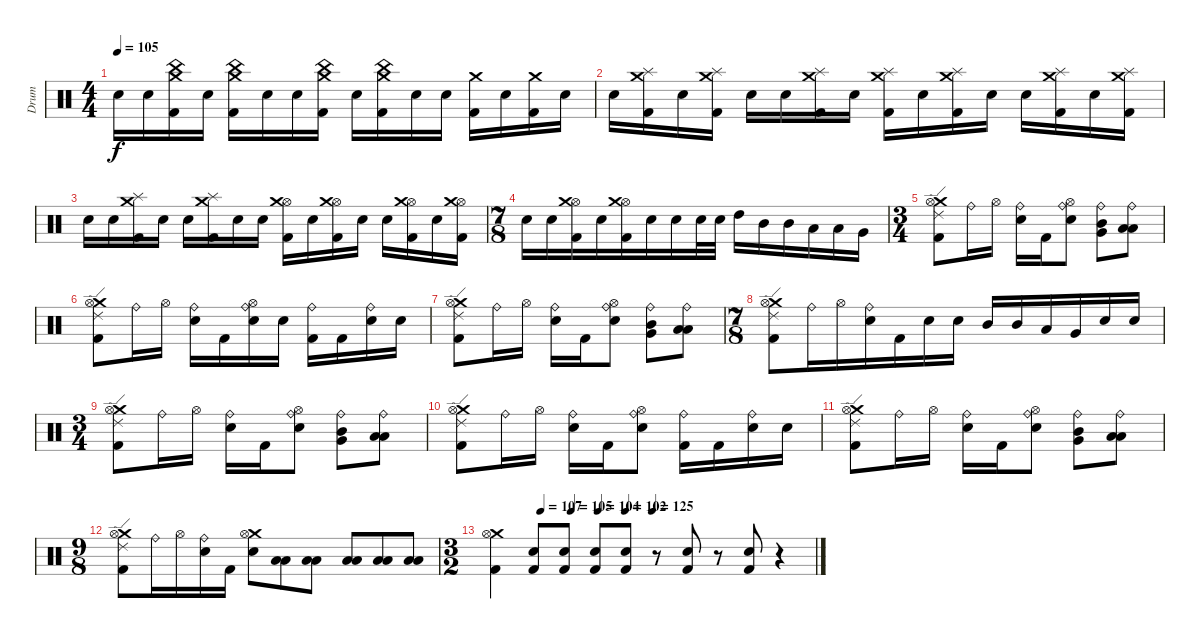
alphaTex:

\track ("Drum" "Drum") {instrument percussion}
\staff {score}
\articulation defaults
\ts (4 4)
\tempo 105
\clef neutral
\ks c "Electric Snare (hit)".16{dy f} "Electric Snare (hit)".16
("Crash medium (hit)" "China (hit)" "Kick (hit) 2").16 "Electric Snare (hit)".16 ("Crash medium (hit)" "China (hit)" "Kick (hit) 2").16 "Electric Snare (hit)".16 "Electric Snare (hit)".16 ("Crash medium (hit)" "China (hit)" "Kick (hit) 2").16 "Electric Snare (hit)".16 ("Crash medium (hit)" "China (hit)" "Kick (hit) 2").16 "Electric Snare (hit)".16 "Electric Snare (hit)".16 ("Crash medium (hit)" "Kick (hit) 2").16 "Electric Snare (hit)".16 ("Crash medium (hit)" "Kick (hit) 2").16 "Electric Snare (hit)".16 |
"Electric Snare (hit)".16 ("Kick (hit) 2" "Crash medium (hit)" "Splash (hit)").16 "Electric Snare (hit)".16 ("Kick (hit) 2" "Crash medium (hit)" "Splash (hit)").16 "Electric Snare (hit)".16 "Electric Snare (hit)".16 ("Splash (hit)" "Crash medium (hit)" "Kick (hit) 2").16 "Electric Snare (hit)".16 ("Splash (hit)" "Crash medium (hit)" "Kick (hit) 2").16 "Electric Snare (hit)".16 ("Splash (hit)" "Crash medium (hit)" "Kick (hit) 2").16 "Electric Snare (hit)".16 "Electric Snare (hit)".16 ("Splash (hit)" "Crash medium (hit)" "Kick (hit) 2").16 "Electric Snare (hit)".16 ("Splash (hit)" "Crash medium (hit)" "Kick (hit) 2").16 |
"Electric Snare (hit)".16 "Electric Snare (hit)".16 ("Splash (hit)" "Crash medium (hit)" "Kick (hit) 2").16 "Electric Snare (hit)".16 "Electric Snare (hit)".16 ("Splash (hit)" "Crash medium (hit)" "Kick (hit) 2").16 "Electric Snare (hit)".16 "Electric Snare (hit)".16 ("Hi-Hat (open)" "Crash medium (hit)" "Kick (hit) 2").16 "Electric Snare (hit)".16 ("Hi-Hat (open)" "Crash medium (hit)" "Kick (hit) 2").16 "Electric Snare (hit)".16 "Electric Snare (hit)".16 ("Hi-Hat (open)" "Crash medium (hit)" "Kick (hit) 2").16 "Electric Snare (hit)".16 ("Hi-Hat (open)" "Crash medium (hit)" "Kick (hit) 2").16 |
\ts (7 8)
"Electric Snare (hit)".16 "Electric Snare (hit)".16 ("Hi-Hat (open)" "Crash medium (hit)" "Kick (hit) 2").16 "Electric Snare (hit)".16 ("Hi-Hat (open)" "Crash medium (hit)" "Kick (hit) 2").16 "Electric Snare (hit)".16 "Electric Snare (hit)".16 "Electric Snare (hit)".32 "Electric Snare (hit)".32 "High Tom (hit)".16 "Mid Tom (hit)".16 "Mid Tom (hit)".16 "Low Tom (hit)".16 "Low Tom (hit)".16 "Very Low Tom (hit)".16 |
\ts (3 4)
("Crash medium (hit)" "Hi-Hat (open)" "Kick (hit) 2" "Ride (edge) 2").8 "Ride (bell)".16 "Hi-Hat (open)".16 ("Ride (bell)" "Electric Snare (hit)").16 "Kick (hit) 2".16 ("Ride (bell)" "Hi-Hat (open)" "Electric Snare (hit)").8 ("Ride (bell)" "Mid Tom (hit)" "Very Low Tom (hit)").8 ("Ride (bell)" "Low Tom (hit)" "Low Floor Tom (hit)").8 |
("Crash medium (hit)" "Hi-Hat (open)" "Kick (hit) 2" "Ride (edge) 2").8 "Ride (bell)".16 "Hi-Hat (open)".16 ("Ride (bell)" "Electric Snare (hit)").16 "Kick (hit) 2".16 ("Electric Snare (hit)" "Ride (bell)" "Hi-Hat (open)").16 "Electric Snare (hit)".16 ("Kick (hit) 2" "Ride (bell)").16 "Kick (hit) 2".16 ("Electric Snare (hit)" "Ride (bell)").16 "Electric Snare (hit)".16 |
("Crash medium (hit)" "Hi-Hat (open)" "Kick (hit) 2" "Ride (edge) 2").8 "Ride (bell)".16 "Hi-Hat (open)".16 ("Ride (bell)" "Electric Snare (hit)").16 "Kick (hit) 2".16 ("Ride (bell)" "Hi-Hat (open)" "Electric Snare (hit)").8 ("Ride (bell)" "Mid Tom (hit)" "Very Low Tom (hit)").8 ("Ride (bell)" "Low Tom (hit)" "Low Floor Tom (hit)").8 |
\ts (7 8)
("Crash medium (hit)" "Hi-Hat (open)" "Kick (hit) 2" "Ride (edge) 2").8 "Ride (bell)".16 "Hi-Hat (open)".16 ("Ride (bell)" "Electric Snare (hit)").16 "Kick (hit) 2".16 "Electric Snare (hit)".16 "Electric Snare (hit)".16 "Mid Tom (hit)".16 "Mid Tom (hit)".16 "Low Tom (hit)".16 "Very Low Tom (hit)".16 "Electric Snare (hit)".16 "Electric Snare (hit)".16 |
\ts (3 4)
("Crash medium (hit)" "Hi-Hat (open)" "Kick (hit) 2" "Ride (edge) 2").8 "Ride (bell)".16 "Hi-Hat (open)".16 ("Ride (bell)" "Electric Snare (hit)").16 "Kick (hit) 2".16 ("Ride (bell)" "Hi-Hat (open)" "Electric Snare (hit)").8 ("Ride (bell)" "Mid Tom (hit)" "Very Low Tom (hit)").8 ("Ride (bell)" "Low Tom (hit)" "Low Floor Tom (hit)").8 |
("Crash medium (hit)" "Hi-Hat (open)" "Kick (hit) 2" "Ride (edge) 2").8 "Ride (bell)".16 "Hi-Hat (open)".16 ("Ride (bell)" "Electric Snare (hit)").16 "Kick (hit) 2".16 ("Ride (bell)" "Hi-Hat (open)" "Electric Snare (hit)").8 ("Kick (hit) 2" "Ride (bell)").16 "Kick (hit) 2".16 ("Electric Snare (hit)" "Ride (bell)").16 "Electric Snare (hit)".16 |
("Crash medium (hit)" "Hi-Hat (open)" "Kick (hit) 2" "Ride (edge) 2").8 "Ride (bell)".16 "Hi-Hat (open)".16 ("Ride (bell)" "Electric Snare (hit)").16 "Kick (hit) 2".16 ("Ride (bell)" "Hi-Hat (open)" "Electric Snare (hit)").8 ("Ride (bell)" "Mid Tom (hit)" "Very Low Tom (hit)").8 ("Ride (bell)" "Low Tom (hit)" "Low Floor Tom (hit)").8 |
\ts (9 8)
("Crash medium (hit)" "Hi-Hat (open)" "Kick (hit) 2" "Ride (edge) 2").8 "Ride (bell)".16 "Hi-Hat (open)".16 ("Ride (bell)" "Electric Snare (hit)").16 "Kick (hit) 2".16 ("Crash medium (hit)" "Hi-Hat (open)" "Electric Snare (hit)").8 ("Low Tom (hit)" "Low Floor Tom (hit)").8 ("Low Tom (hit)" "Low Floor Tom (hit)").8 ("Low Tom (hit)" "Low Floor Tom (hit)").8 ("Low Tom (hit)" "Low Floor Tom (hit)").8 ("Low Tom (hit)" "Low Floor Tom (hit)").8 |
\ts (3 2)
\tempo (107 0.15625)
\tempo (105 0.25)
\tempo (104 0.3333333333333333)
\tempo (102 0.4166666666666667)
\tempo (125 0.5)
("Crash medium (hit)" "Hi-Hat (open)" "Kick (hit) 2").4 ("Kick (hit) 2" "Electric Snare (hit)").8 ("Kick (hit) 2" "Electric Snare (hit)").8 ("Kick (hit) 2" "Electric Snare (hit)").8 ("Kick (hit) 2" "Electric Snare (hit)").8 r.8 ("Kick (hit) 2" "Electric Snare (hit)").8 r.8 ("Kick (hit) 2" "Electric Snare (hit)").8 r.4
